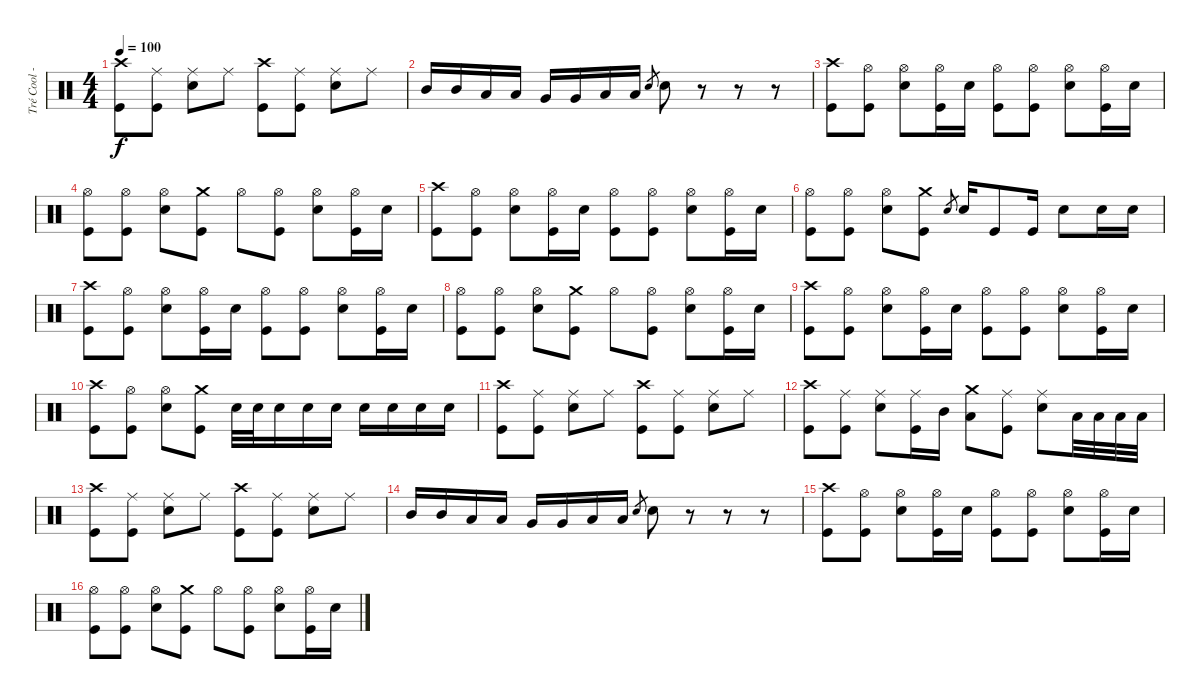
\track ("Tré Cool - Drums" "Tré Cool -") {instrument percussion}
\staff {score}
\articulation defaults
\ts (4 4)
\tempo 100
\clef neutral
\ks c
("Crash high (hit)" "Kick (hit)").8{dy f} ("Ride (middle)" "Kick (hit)").8 ("Ride (middle)" "Electric Snare (hit)").8 "Ride (middle)".8 ("Crash high (hit)" "Kick (hit)").8 ("Ride (middle)" "Kick (hit)").8 ("Ride (middle)" "Electric Snare (hit)").8 "Ride (middle)".8 |
"Mid Tom (hit)".16 "Mid Tom (hit)".16 "Low Tom (hit)".16 "Low Tom (hit)".16 "Very Low Tom (hit)".16 "Very Low Tom (hit)".16 "Low Floor Tom (hit)".16 "Low Floor Tom (hit)".16 "Electric Snare (hit)".8{gr} "Electric Snare (hit)".8 r.8 r.8 r.8 |
("Crash high (hit)" "Kick (hit)").8 ("Hi-Hat (open)" "Kick (hit)").8 ("Hi-Hat (open)" "Electric Snare (hit)").8 ("Hi-Hat (open)" "Kick (hit)").16 "Electric Snare (hit)".16 ("Hi-Hat (open)" "Kick (hit)").8 ("Hi-Hat (open)" "Kick (hit)").8 ("Hi-Hat (open)" "Electric Snare (hit)").8 ("Hi-Hat (open)" "Kick (hit)").16 "Electric Snare (hit)".16 |
("Hi-Hat (open)" "Kick (hit)").8 ("Hi-Hat (open)" "Kick (hit)").8 ("Hi-Hat (open)" "Electric Snare (hit)").8 ("Crash medium (hit)" "Kick (hit)").8 "Hi-Hat (open)".8 ("Hi-Hat (open)" "Kick (hit)").8 ("Hi-Hat (open)" "Electric Snare (hit)").8 ("Hi-Hat (open)" "Kick (hit)").16 "Electric Snare (hit)".16 |
("Crash high (hit)" "Kick (hit)").8 ("Hi-Hat (open)" "Kick (hit)").8 ("Hi-Hat (open)" "Electric Snare (hit)").8 ("Hi-Hat (open)" "Kick (hit)").16 "Electric Snare (hit)".16 ("Hi-Hat (open)" "Kick (hit)").8 ("Hi-Hat (open)" "Kick (hit)").8 ("Hi-Hat (open)" "Electric Snare (hit)").8 ("Hi-Hat (open)" "Kick (hit)").16 "Electric Snare (hit)".16 |
("Hi-Hat (open)" "Kick (hit)").8 ("Hi-Hat (open)" "Kick (hit)").8 ("Hi-Hat (open)" "Electric Snare (hit)").8 ("Crash medium (hit)" "Kick (hit)").8 "Electric Snare (hit)".8{gr} "Electric Snare (hit)".16 "Kick (hit)".8 "Kick (hit)".16 "Electric Snare (hit)".8 "Electric Snare (hit)".16 "Electric Snare (hit)".16 |
("Crash high (hit)" "Kick (hit)").8 ("Hi-Hat (open)" "Kick (hit)").8 ("Hi-Hat (open)" "Electric Snare (hit)").8 ("Hi-Hat (open)" "Kick (hit)").16 "Electric Snare (hit)".16 ("Hi-Hat (open)" "Kick (hit)").8 ("Hi-Hat (open)" "Kick (hit)").8 ("Hi-Hat (open)" "Electric Snare (hit)").8 ("Hi-Hat (open)" "Kick (hit)").16 "Electric Snare (hit)".16 |
("Hi-Hat (open)" "Kick (hit)").8 ("Hi-Hat (open)" "Kick (hit)").8 ("Hi-Hat (open)" "Electric Snare (hit)").8 ("Crash medium (hit)" "Kick (hit)").8 "Hi-Hat (open)".8 ("Hi-Hat (open)" "Kick (hit)").8 ("Hi-Hat (open)" "Electric Snare (hit)").8 ("Hi-Hat (open)" "Kick (hit)").16 "Electric Snare (hit)".16 |
("Crash high (hit)" "Kick (hit)").8 ("Hi-Hat (open)" "Kick (hit)").8 ("Hi-Hat (open)" "Electric Snare (hit)").8 ("Hi-Hat (open)" "Kick (hit)").16 "Electric Snare (hit)".16 ("Hi-Hat (open)" "Kick (hit)").8 ("Hi-Hat (open)" "Kick (hit)").8 ("Hi-Hat (open)" "Electric Snare (hit)").8 ("Hi-Hat (open)" "Kick (hit)").16 "Electric Snare (hit)".16 |
("Crash high (hit)" "Kick (hit)").8 ("Hi-Hat (open)" "Kick (hit)").8 ("Hi-Hat (open)" "Electric Snare (hit)").8 ("Crash medium (hit)" "Kick (hit)").8 "Electric Snare (hit)".32 "Electric Snare (hit)".32 "Electric Snare (hit)".16 "Electric Snare (hit)".16 "Electric Snare (hit)".16 "Electric Snare (hit)".16 "Electric Snare (hit)".16 "Electric Snare (hit)".16 "Electric Snare (hit)".16 |
("Crash high (hit)" "Kick (hit)").8 ("Ride (middle)" "Kick (hit)").8 ("Ride (middle)" "Electric Snare (hit)").8 "Ride (middle)".8 ("Crash high (hit)" "Kick (hit)").8 ("Ride (middle)" "Kick (hit)").8 ("Ride (middle)" "Electric Snare (hit)").8 "Ride (middle)".8 |
("Crash high (hit)" "Kick (hit)").8 ("Ride (middle)" "Kick (hit)").8 ("Ride (middle)" "Electric Snare (hit)").8 ("Ride (middle)" "Kick (hit)").16 "Mid Tom (hit)".16 ("Crash medium (hit)" "Low Tom (hit)").8 ("Ride (middle)" "Kick (hit)").8 ("Ride (middle)" "Electric Snare (hit)").8 "Low Floor Tom (hit)".32 "Low Floor Tom (hit)".32 "Low Floor Tom (hit)".32 "Low Floor Tom (hit)".32 |
("Crash high (hit)" "Kick (hit)").8 ("Ride (middle)" "Kick (hit)").8 ("Ride (middle)" "Electric Snare (hit)").8 "Ride (middle)".8 ("Crash high (hit)" "Kick (hit)").8 ("Ride (middle)" "Kick (hit)").8 ("Ride (middle)" "Electric Snare (hit)").8 "Ride (middle)".8 |
"Mid Tom (hit)".16 "Mid Tom (hit)".16 "Low Tom (hit)".16 "Low Tom (hit)".16 "Very Low Tom (hit)".16 "Very Low Tom (hit)".16 "Low Floor Tom (hit)".16 "Low Floor Tom (hit)".16 "Electric Snare (hit)".8{gr} "Electric Snare (hit)".8 r.8 r.8 r.8 |
("Crash high (hit)" "Kick (hit)").8 ("Hi-Hat (open)" "Kick (hit)").8 ("Hi-Hat (open)" "Electric Snare (hit)").8 ("Hi-Hat (open)" "Kick (hit)").16 "Electric Snare (hit)".16 ("Hi-Hat (open)" "Kick (hit)").8 ("Hi-Hat (open)" "Kick (hit)").8 ("Hi-Hat (open)" "Electric Snare (hit)").8 ("Hi-Hat (open)" "Kick (hit)").16 "Electric Snare (hit)".16 |
("Hi-Hat (open)" "Kick (hit)").8 ("Hi-Hat (open)" "Kick (hit)").8 ("Hi-Hat (open)" "Electric Snare (hit)").8 ("Crash medium (hit)" "Kick (hit)").8 "Hi-Hat (open)".8 ("Hi-Hat (open)" "Kick (hit)").8 ("Hi-Hat (open)" "Electric Snare (hit)").8 ("Hi-Hat (open)" "Kick (hit)").16 "Electric Snare (hit)".16
